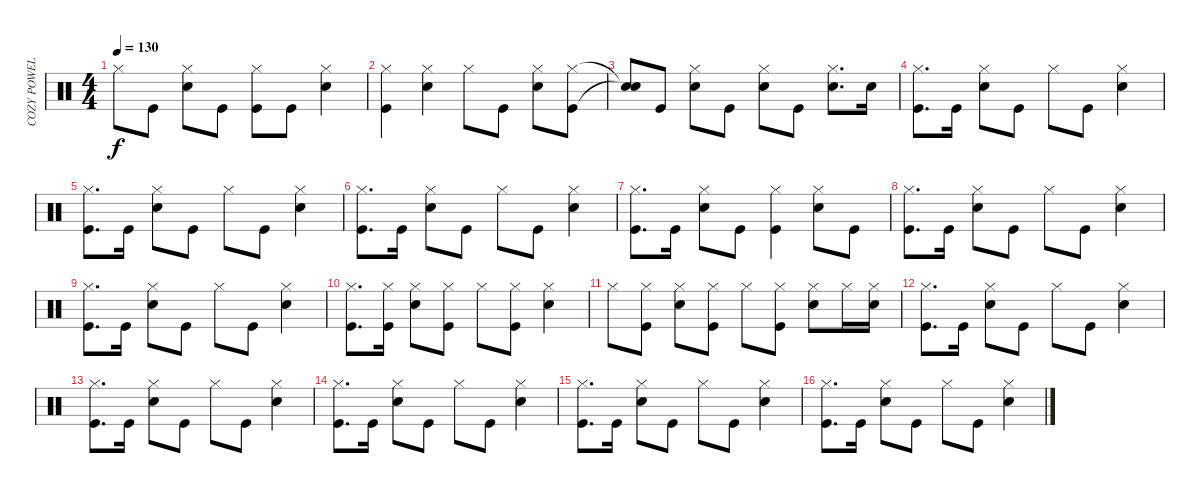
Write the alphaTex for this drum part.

\track ("COZY POWELL" "COZY POWEL") {instrument percussion}
\staff {score}
\articulation defaults
\ts (4 4)
\tempo 130
\clef neutral
\ks c "Hi-Hat (closed)".8{dy f} "Kick (hit)".8
("Hi-Hat (closed)" "Snare (hit) 2").8 "Kick (hit)".8 ("Hi-Hat (closed)" "Kick (hit)").8 "Kick (hit)".8 ("Hi-Hat (closed)" "Snare (hit) 2").4 |
("Hi-Hat (closed)" "Kick (hit)").4 ("Hi-Hat (closed)" "Snare (hit) 2").4 "Hi-Hat (closed)".8 "Kick (hit)".8 ("Hi-Hat (closed)" "Snare (hit) 2").8 ("Hi-Hat (closed)" "Kick (hit)").8 |
("Snare (hit)"{t} "Snare (hit)"{t}).8 "Kick (hit)".8 ("Hi-Hat (closed)" "Snare (hit) 2").8 "Kick (hit)".8 ("Hi-Hat (closed)" "Snare (hit) 2").8 "Kick (hit)".8 ("Hi-Hat (closed)" "Snare (hit) 2").8{d} "Snare (hit) 2".16 |
("Hi-Hat (closed)" "Kick (hit)").8{d} "Kick (hit)".16 ("Hi-Hat (closed)" "Snare (hit) 2").8 "Kick (hit)".8 "Hi-Hat (closed)".8 "Kick (hit)".8 ("Hi-Hat (closed)" "Snare (hit) 2").4 |
("Hi-Hat (closed)" "Kick (hit)").8{d} "Kick (hit)".16 ("Hi-Hat (closed)" "Snare (hit) 2").8 "Kick (hit)".8 "Hi-Hat (closed)".8 "Kick (hit)".8 ("Hi-Hat (closed)" "Snare (hit) 2").4 |
("Hi-Hat (closed)" "Kick (hit)").8{d} "Kick (hit)".16 ("Hi-Hat (closed)" "Snare (hit) 2").8 "Kick (hit)".8 "Hi-Hat (closed)".8 "Kick (hit)".8 ("Hi-Hat (closed)" "Snare (hit) 2").4 |
("Hi-Hat (closed)" "Kick (hit)").8{d} "Kick (hit)".16 ("Hi-Hat (closed)" "Snare (hit) 2").8 "Kick (hit)".8 ("Hi-Hat (closed)" "Kick (hit)").4 ("Hi-Hat (closed)" "Snare (hit) 2").8 "Kick (hit)".8 |
("Hi-Hat (closed)" "Kick (hit)").8{d} "Kick (hit)".16 ("Hi-Hat (closed)" "Snare (hit) 2").8 "Kick (hit)".8 "Hi-Hat (closed)".8 "Kick (hit)".8 ("Hi-Hat (closed)" "Snare (hit) 2").4 |
("Hi-Hat (closed)" "Kick (hit)").8{d} "Kick (hit)".16 ("Hi-Hat (closed)" "Snare (hit) 2").8 "Kick (hit)".8 "Hi-Hat (closed)".8 "Kick (hit)".8 ("Hi-Hat (closed)" "Snare (hit) 2").4 |
("Hi-Hat (closed)" "Kick (hit)").8{d} ("Hi-Hat (closed)" "Kick (hit)").16 ("Hi-Hat (closed)" "Snare (hit) 2").8 ("Hi-Hat (closed)" "Kick (hit)").8 "Hi-Hat (closed)".8 ("Hi-Hat (closed)" "Kick (hit)").8 ("Hi-Hat (closed)" "Snare (hit) 2").4 |
"Hi-Hat (closed)".8 ("Hi-Hat (closed)" "Kick (hit)").8 ("Hi-Hat (closed)" "Snare (hit) 2").8 ("Hi-Hat (closed)" "Kick (hit)").8 "Hi-Hat (closed)".8 ("Hi-Hat (closed)" "Kick (hit)").8 ("Hi-Hat (closed)" "Snare (hit) 2").8 "Hi-Hat (closed)".16 ("Hi-Hat (closed)" "Snare (hit) 2").16 |
("Hi-Hat (closed)" "Kick (hit)").8{d} "Kick (hit)".16 ("Hi-Hat (closed)" "Snare (hit) 2").8 "Kick (hit)".8 "Hi-Hat (closed)".8 "Kick (hit)".8 ("Hi-Hat (closed)" "Snare (hit) 2").4 |
("Hi-Hat (closed)" "Kick (hit)").8{d} "Kick (hit)".16 ("Hi-Hat (closed)" "Snare (hit) 2").8 "Kick (hit)".8 "Hi-Hat (closed)".8 "Kick (hit)".8 ("Hi-Hat (closed)" "Snare (hit) 2").4 |
("Hi-Hat (closed)" "Kick (hit)").8{d} "Kick (hit)".16 ("Hi-Hat (closed)" "Snare (hit) 2").8 "Kick (hit)".8 "Hi-Hat (closed)".8 "Kick (hit)".8 ("Hi-Hat (closed)" "Snare (hit) 2").4 |
("Hi-Hat (closed)" "Kick (hit)").8{d} "Kick (hit)".16 ("Hi-Hat (closed)" "Snare (hit) 2").8 "Kick (hit)".8 "Hi-Hat (closed)".8 "Kick (hit)".8 ("Hi-Hat (closed)" "Snare (hit) 2").4 |
("Hi-Hat (closed)" "Kick (hit)").8{d} "Kick (hit)".16 ("Hi-Hat (closed)" "Snare (hit) 2").8 "Kick (hit)".8 "Hi-Hat (closed)".8 "Kick (hit)".8 ("Hi-Hat (closed)" "Snare (hit) 2").4
